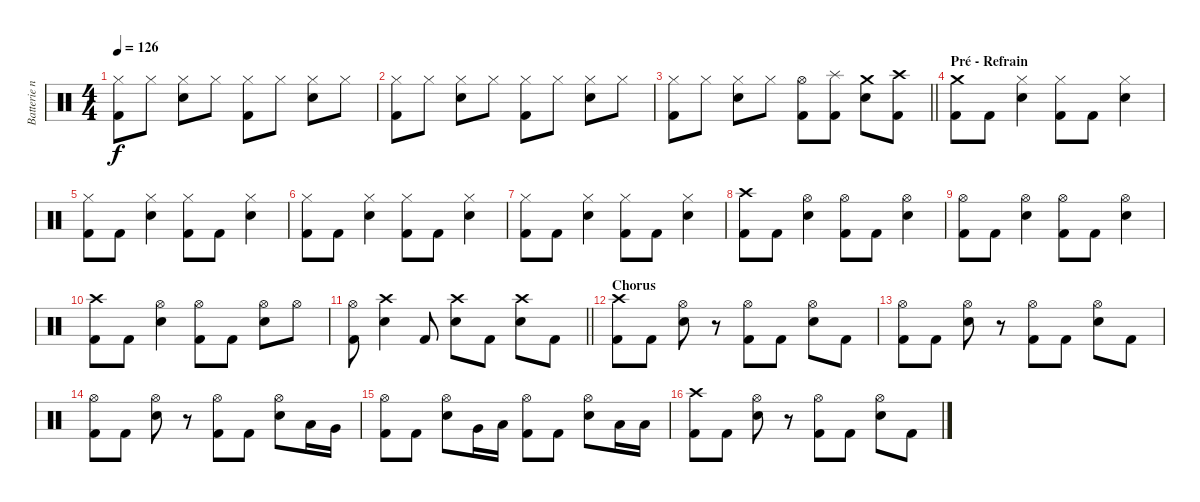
\track ("Batterie n°3" "Batterie n") {instrument percussion}
\staff {score}
\articulation defaults
\ts (4 4)
\tempo 126
\clef neutral
\ks c
("Hi-Hat (closed)" "Kick (hit) 2").8{dy f} "Hi-Hat (closed)".8 ("Hi-Hat (closed)" "Snare (hit) 2").8 "Hi-Hat (closed)".8 ("Hi-Hat (closed)" "Kick (hit) 2").8 "Hi-Hat (closed)".8 ("Hi-Hat (closed)" "Snare (hit) 2").8 "Hi-Hat (closed)".8 |
("Hi-Hat (closed)" "Kick (hit) 2").8 "Hi-Hat (closed)".8 ("Hi-Hat (closed)" "Snare (hit) 2").8 "Hi-Hat (closed)".8 ("Hi-Hat (closed)" "Kick (hit) 2").8 "Hi-Hat (closed)".8 ("Hi-Hat (closed)" "Snare (hit) 2").8 "Hi-Hat (closed)".8 |
\barLineRight lightlight
("Hi-Hat (closed)" "Kick (hit) 2").8 "Hi-Hat (closed)".8 ("Hi-Hat (closed)" "Snare (hit) 2").8 "Hi-Hat (closed)".8 ("Hi-Hat (open)" "Kick (hit) 2").8 ("Splash (hit)" "Kick (hit) 2").8 ("Crash medium (hit)" "Snare (hit) 2").8 ("Crash high (hit)" "Kick (hit) 2").8 |
\section ("" "Pré - Refrain")
("Crash medium (hit)" "Kick (hit) 2").8 "Kick (hit) 2".8 ("Hi-Hat (closed)" "Snare (hit) 2").4 ("Hi-Hat (closed)" "Kick (hit) 2").8 "Kick (hit) 2".8 ("Hi-Hat (closed)" "Snare (hit) 2").4 |
("Hi-Hat (closed)" "Kick (hit) 2").8 "Kick (hit) 2".8 ("Hi-Hat (closed)" "Snare (hit) 2").4 ("Hi-Hat (closed)" "Kick (hit) 2").8 "Kick (hit) 2".8 ("Hi-Hat (closed)" "Snare (hit) 2").4 |
("Hi-Hat (closed)" "Kick (hit) 2").8 "Kick (hit) 2".8 ("Hi-Hat (closed)" "Snare (hit) 2").4 ("Hi-Hat (closed)" "Kick (hit) 2").8 "Kick (hit) 2".8 ("Hi-Hat (closed)" "Snare (hit) 2").4 |
("Hi-Hat (closed)" "Kick (hit) 2").8 "Kick (hit) 2".8 ("Hi-Hat (closed)" "Snare (hit) 2").4 ("Hi-Hat (closed)" "Kick (hit) 2").8 "Kick (hit) 2".8 ("Hi-Hat (closed)" "Snare (hit) 2").4 |
("Crash high (hit)" "Kick (hit) 2").8 "Kick (hit) 2".8 ("Hi-Hat (open)" "Snare (hit) 2").4 ("Hi-Hat (open)" "Kick (hit) 2").8 "Kick (hit) 2".8 ("Hi-Hat (open)" "Snare (hit) 2").4 |
("Hi-Hat (open)" "Kick (hit) 2").8 "Kick (hit) 2".8 ("Hi-Hat (open)" "Snare (hit) 2").4 ("Hi-Hat (open)" "Kick (hit) 2").8 "Kick (hit) 2".8 ("Hi-Hat (open)" "Snare (hit) 2").4 |
("Crash high (hit)" "Kick (hit) 2").8 "Kick (hit) 2".8 ("Hi-Hat (open)" "Snare (hit) 2").4 ("Hi-Hat (open)" "Kick (hit) 2").8 "Kick (hit) 2".8 ("Hi-Hat (open)" "Snare (hit) 2").8 "Hi-Hat (open)".8 |
\barLineRight lightlight
("Hi-Hat (open)" "Kick (hit) 2").8 ("Crash high (hit)" "Snare (hit) 2").4 "Kick (hit) 2".8 ("Crash high (hit)" "Snare (hit) 2").8 "Kick (hit) 2".8 ("Crash high (hit)" "Snare (hit) 2").8 "Kick (hit) 2".8 |
\section ("" "Chorus")
("Crash high (hit)" "Kick (hit) 2").8 "Kick (hit) 2".8 ("Hi-Hat (open)" "Snare (hit) 2").8 r.8 ("Hi-Hat (open)" "Kick (hit) 2").8 "Kick (hit) 2".8 ("Hi-Hat (open)" "Snare (hit) 2").8 "Kick (hit) 2".8 |
("Hi-Hat (open)" "Kick (hit) 2").8 "Kick (hit) 2".8 ("Hi-Hat (open)" "Snare (hit) 2").8 r.8 ("Hi-Hat (open)" "Kick (hit) 2").8 "Kick (hit) 2".8 ("Hi-Hat (open)" "Snare (hit) 2").8 "Kick (hit) 2".8 |
("Hi-Hat (open)" "Kick (hit) 2").8 "Kick (hit) 2".8 ("Hi-Hat (open)" "Snare (hit) 2").8 r.8 ("Hi-Hat (open)" "Kick (hit) 2").8 "Kick (hit) 2".8 ("Hi-Hat (open)" "Snare (hit) 2").8 "Low Tom (hit)".16 "Very Low Tom (hit)".16 |
("Hi-Hat (open)" "Kick (hit) 2").8 "Kick (hit) 2".8 ("Hi-Hat (open)" "Snare (hit) 2").8 "Very Low Tom (hit)".16 "Low Floor Tom (hit)".16 ("Hi-Hat (open)" "Kick (hit) 2").8 "Kick (hit) 2".8 ("Hi-Hat (open)" "Snare (hit) 2").8 "Low Floor Tom (hit)".16 "Low Floor Tom (hit)".16 |
("Crash high (hit)" "Kick (hit) 2").8 "Kick (hit) 2".8 ("Hi-Hat (open)" "Snare (hit) 2").8 r.8 ("Hi-Hat (open)" "Kick (hit) 2").8 "Kick (hit) 2".8 ("Hi-Hat (open)" "Snare (hit) 2").8 "Kick (hit) 2".8
